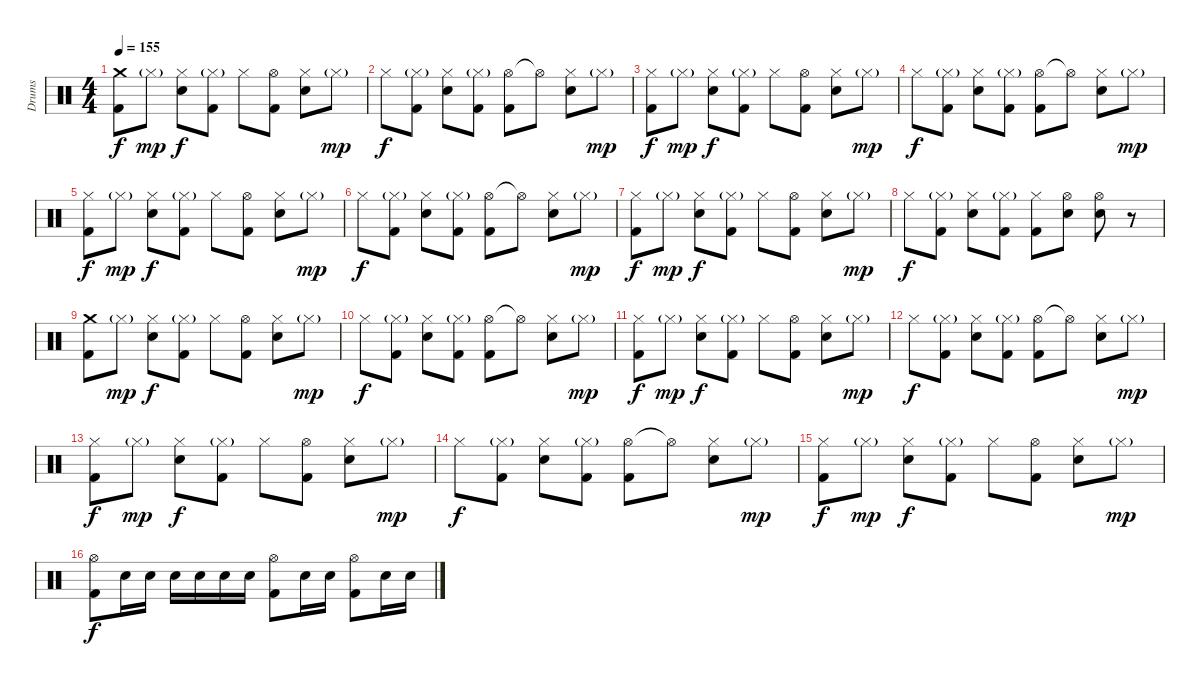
\track ("Drums" "Drums") {instrument percussion}
\staff {score}
\articulation defaults
\ts (4 4)
\tempo 155
\clef neutral
\ks c
("Crash medium (hit)" "Kick (hit) 2").8{dy f} "Hi-Hat (closed)"{g}.8{dy mp} ("Hi-Hat (closed)" "Electric Snare (hit)").8{dy f} ("Hi-Hat (closed)"{g} "Kick (hit) 2").8 "Hi-Hat (closed)".8 ("Hi-Hat (open)" "Kick (hit) 2").8 ("Hi-Hat (closed)" "Electric Snare (hit)").8 "Hi-Hat (closed)"{g}.8{dy mp} |
"Hi-Hat (closed)".8{dy f} ("Hi-Hat (closed)"{g} "Kick (hit) 2").8 ("Hi-Hat (closed)" "Electric Snare (hit)").8 ("Hi-Hat (closed)"{g} "Kick (hit) 2").8 ("Hi-Hat (open)" "Kick (hit) 2").8 "Hi-Hat (open)"{t}.8 ("Hi-Hat (closed)" "Electric Snare (hit)").8 "Hi-Hat (closed)"{g}.8{dy mp} |
("Hi-Hat (closed)" "Kick (hit) 2").8{dy f} "Hi-Hat (closed)"{g}.8{dy mp} ("Hi-Hat (closed)" "Electric Snare (hit)").8{dy f} ("Hi-Hat (closed)"{g} "Kick (hit) 2").8 "Hi-Hat (closed)".8 ("Hi-Hat (open)" "Kick (hit) 2").8 ("Hi-Hat (closed)" "Electric Snare (hit)").8 "Hi-Hat (closed)"{g}.8{dy mp} |
"Hi-Hat (closed)".8{dy f} ("Hi-Hat (closed)"{g} "Kick (hit) 2").8 ("Hi-Hat (closed)" "Electric Snare (hit)").8 ("Hi-Hat (closed)"{g} "Kick (hit) 2").8 ("Hi-Hat (open)" "Kick (hit) 2").8 "Hi-Hat (open)"{t}.8 ("Hi-Hat (closed)" "Electric Snare (hit)").8 "Hi-Hat (closed)"{g}.8{dy mp} |
("Hi-Hat (closed)" "Kick (hit) 2").8{dy f} "Hi-Hat (closed)"{g}.8{dy mp} ("Hi-Hat (closed)" "Electric Snare (hit)").8{dy f} ("Hi-Hat (closed)"{g} "Kick (hit) 2").8 "Hi-Hat (closed)".8 ("Hi-Hat (open)" "Kick (hit) 2").8 ("Hi-Hat (closed)" "Electric Snare (hit)").8 "Hi-Hat (closed)"{g}.8{dy mp} |
"Hi-Hat (closed)".8{dy f} ("Hi-Hat (closed)"{g} "Kick (hit) 2").8 ("Hi-Hat (closed)" "Electric Snare (hit)").8 ("Hi-Hat (closed)"{g} "Kick (hit) 2").8 ("Hi-Hat (open)" "Kick (hit) 2").8 "Hi-Hat (open)"{t}.8 ("Hi-Hat (closed)" "Electric Snare (hit)").8 "Hi-Hat (closed)"{g}.8{dy mp} |
("Hi-Hat (closed)" "Kick (hit) 2").8{dy f} "Hi-Hat (closed)"{g}.8{dy mp} ("Hi-Hat (closed)" "Electric Snare (hit)").8{dy f} ("Hi-Hat (closed)"{g} "Kick (hit) 2").8 "Hi-Hat (closed)".8 ("Hi-Hat (open)" "Kick (hit) 2").8 ("Hi-Hat (closed)" "Electric Snare (hit)").8 "Hi-Hat (closed)"{g}.8{dy mp} |
"Hi-Hat (closed)".8{dy f} ("Hi-Hat (closed)"{g} "Kick (hit) 2").8 ("Hi-Hat (closed)" "Electric Snare (hit)").8 ("Hi-Hat (closed)"{g} "Kick (hit) 2").8 ("Hi-Hat (closed)" "Kick (hit) 2").8 ("Hi-Hat (open)" "Electric Snare (hit)").8 ("Hi-Hat (open)" "Electric Snare (hit)").8 r.8 |
("Crash medium (hit)" "Kick (hit) 2").8 "Hi-Hat (closed)"{g}.8{dy mp} ("Hi-Hat (closed)" "Electric Snare (hit)").8{dy f} ("Hi-Hat (closed)"{g} "Kick (hit) 2").8 "Hi-Hat (closed)".8 ("Hi-Hat (open)" "Kick (hit) 2").8 ("Hi-Hat (closed)" "Electric Snare (hit)").8 "Hi-Hat (closed)"{g}.8{dy mp} |
"Hi-Hat (closed)".8{dy f} ("Hi-Hat (closed)"{g} "Kick (hit) 2").8 ("Hi-Hat (closed)" "Electric Snare (hit)").8 ("Hi-Hat (closed)"{g} "Kick (hit) 2").8 ("Hi-Hat (open)" "Kick (hit) 2").8 "Hi-Hat (open)"{t}.8 ("Hi-Hat (closed)" "Electric Snare (hit)").8 "Hi-Hat (closed)"{g}.8{dy mp} |
("Hi-Hat (closed)" "Kick (hit) 2").8{dy f} "Hi-Hat (closed)"{g}.8{dy mp} ("Hi-Hat (closed)" "Electric Snare (hit)").8{dy f} ("Hi-Hat (closed)"{g} "Kick (hit) 2").8 "Hi-Hat (closed)".8 ("Hi-Hat (open)" "Kick (hit) 2").8 ("Hi-Hat (closed)" "Electric Snare (hit)").8 "Hi-Hat (closed)"{g}.8{dy mp} |
"Hi-Hat (closed)".8{dy f} ("Hi-Hat (closed)"{g} "Kick (hit) 2").8 ("Hi-Hat (closed)" "Electric Snare (hit)").8 ("Hi-Hat (closed)"{g} "Kick (hit) 2").8 ("Hi-Hat (open)" "Kick (hit) 2").8 "Hi-Hat (open)"{t}.8 ("Hi-Hat (closed)" "Electric Snare (hit)").8 "Hi-Hat (closed)"{g}.8{dy mp} |
("Hi-Hat (closed)" "Kick (hit) 2").8{dy f} "Hi-Hat (closed)"{g}.8{dy mp} ("Hi-Hat (closed)" "Electric Snare (hit)").8{dy f} ("Hi-Hat (closed)"{g} "Kick (hit) 2").8 "Hi-Hat (closed)".8 ("Hi-Hat (open)" "Kick (hit) 2").8 ("Hi-Hat (closed)" "Electric Snare (hit)").8 "Hi-Hat (closed)"{g}.8{dy mp} |
"Hi-Hat (closed)".8{dy f} ("Hi-Hat (closed)"{g} "Kick (hit) 2").8 ("Hi-Hat (closed)" "Electric Snare (hit)").8 ("Hi-Hat (closed)"{g} "Kick (hit) 2").8 ("Hi-Hat (open)" "Kick (hit) 2").8 "Hi-Hat (open)"{t}.8 ("Hi-Hat (closed)" "Electric Snare (hit)").8 "Hi-Hat (closed)"{g}.8{dy mp} |
("Hi-Hat (closed)" "Kick (hit) 2").8{dy f} "Hi-Hat (closed)"{g}.8{dy mp} ("Hi-Hat (closed)" "Electric Snare (hit)").8{dy f} ("Hi-Hat (closed)"{g} "Kick (hit) 2").8 "Hi-Hat (closed)".8 ("Hi-Hat (open)" "Kick (hit) 2").8 ("Hi-Hat (closed)" "Electric Snare (hit)").8 "Hi-Hat (closed)"{g}.8{dy mp} |
("Hi-Hat (open)" "Kick (hit) 2").8{dy f} "Electric Snare (hit)".16 "Electric Snare (hit)".16 "Electric Snare (hit)".16 "Electric Snare (hit)".16 "Electric Snare (hit)".16 "Electric Snare (hit)".16 ("Hi-Hat (open)" "Kick (hit) 2").8 "Electric Snare (hit)".16 "Electric Snare (hit)".16 ("Hi-Hat (open)" "Kick (hit) 2").8 "Electric Snare (hit)".16 "Electric Snare (hit)".16
